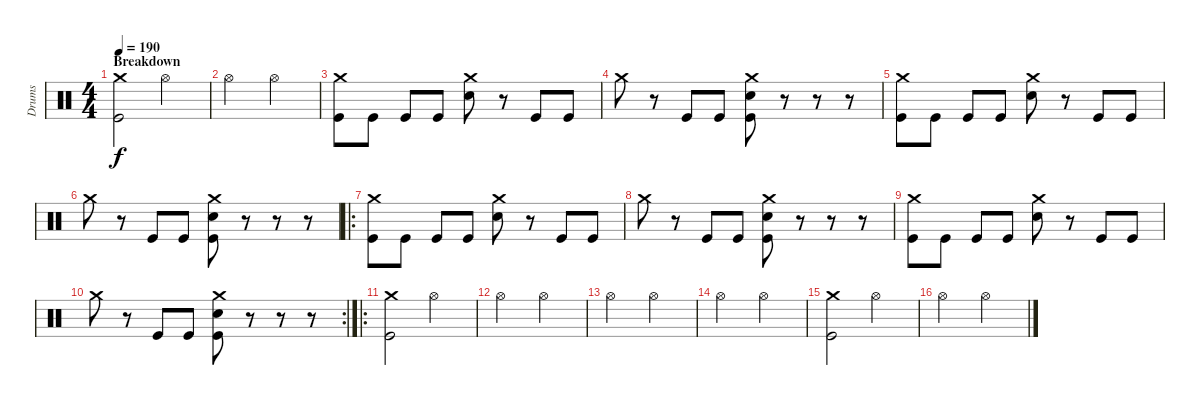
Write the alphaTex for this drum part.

\track ("Drums" "Drums") {instrument percussion}
\staff {score}
\articulation defaults
\ts (4 4)
\section ("" "Breakdown")
\tempo 190
\clef neutral
\ks c
("Crash medium (hit)" "Kick (hit)").2{dy f} "Hi-Hat (open)".2 |
"Hi-Hat (open)".2 "Hi-Hat (open)".2 |
("Crash medium (hit)" "Kick (hit)").8 "Kick (hit)".8 "Kick (hit)".8 "Kick (hit)".8 ("Crash medium (hit)" "Snare (hit) 2").8 r.8 "Kick (hit)".8 "Kick (hit)".8 |
"Crash medium (hit)".8 r.8 "Kick (hit)".8 "Kick (hit)".8 ("Crash medium (hit)" "Snare (hit) 2" "Kick (hit)").8 r.8 r.8 r.8 |
("Crash medium (hit)" "Kick (hit)").8 "Kick (hit)".8 "Kick (hit)".8 "Kick (hit)".8 ("Crash medium (hit)" "Snare (hit) 2").8 r.8 "Kick (hit)".8 "Kick (hit)".8 |
"Crash medium (hit)".8 r.8 "Kick (hit)".8 "Kick (hit)".8 ("Crash medium (hit)" "Snare (hit) 2" "Kick (hit)").8 r.8 r.8 r.8 |
\ro
("Crash medium (hit)" "Kick (hit)").8 "Kick (hit)".8 "Kick (hit)".8 "Kick (hit)".8 ("Crash medium (hit)" "Snare (hit) 2").8 r.8 "Kick (hit)".8 "Kick (hit)".8 |
"Crash medium (hit)".8 r.8 "Kick (hit)".8 "Kick (hit)".8 ("Crash medium (hit)" "Snare (hit) 2" "Kick (hit)").8 r.8 r.8 r.8 |
("Crash medium (hit)" "Kick (hit)").8 "Kick (hit)".8 "Kick (hit)".8 "Kick (hit)".8 ("Crash medium (hit)" "Snare (hit) 2").8 r.8 "Kick (hit)".8 "Kick (hit)".8 |
\rc 2 "Crash medium (hit)".8
r.8 "Kick (hit)".8 "Kick (hit)".8 ("Crash medium (hit)" "Snare (hit) 2" "Kick (hit)").8 r.8 r.8 r.8 |
\ro
("Crash medium (hit)" "Kick (hit)").2 "Hi-Hat (open)".2 |
"Hi-Hat (open)".2 "Hi-Hat (open)".2 |
"Hi-Hat (open)".2 "Hi-Hat (open)".2 |
"Hi-Hat (open)".2 "Hi-Hat (open)".2 |
("Crash medium (hit)" "Kick (hit)").2 "Hi-Hat (open)".2 |
"Hi-Hat (open)".2 "Hi-Hat (open)".2
